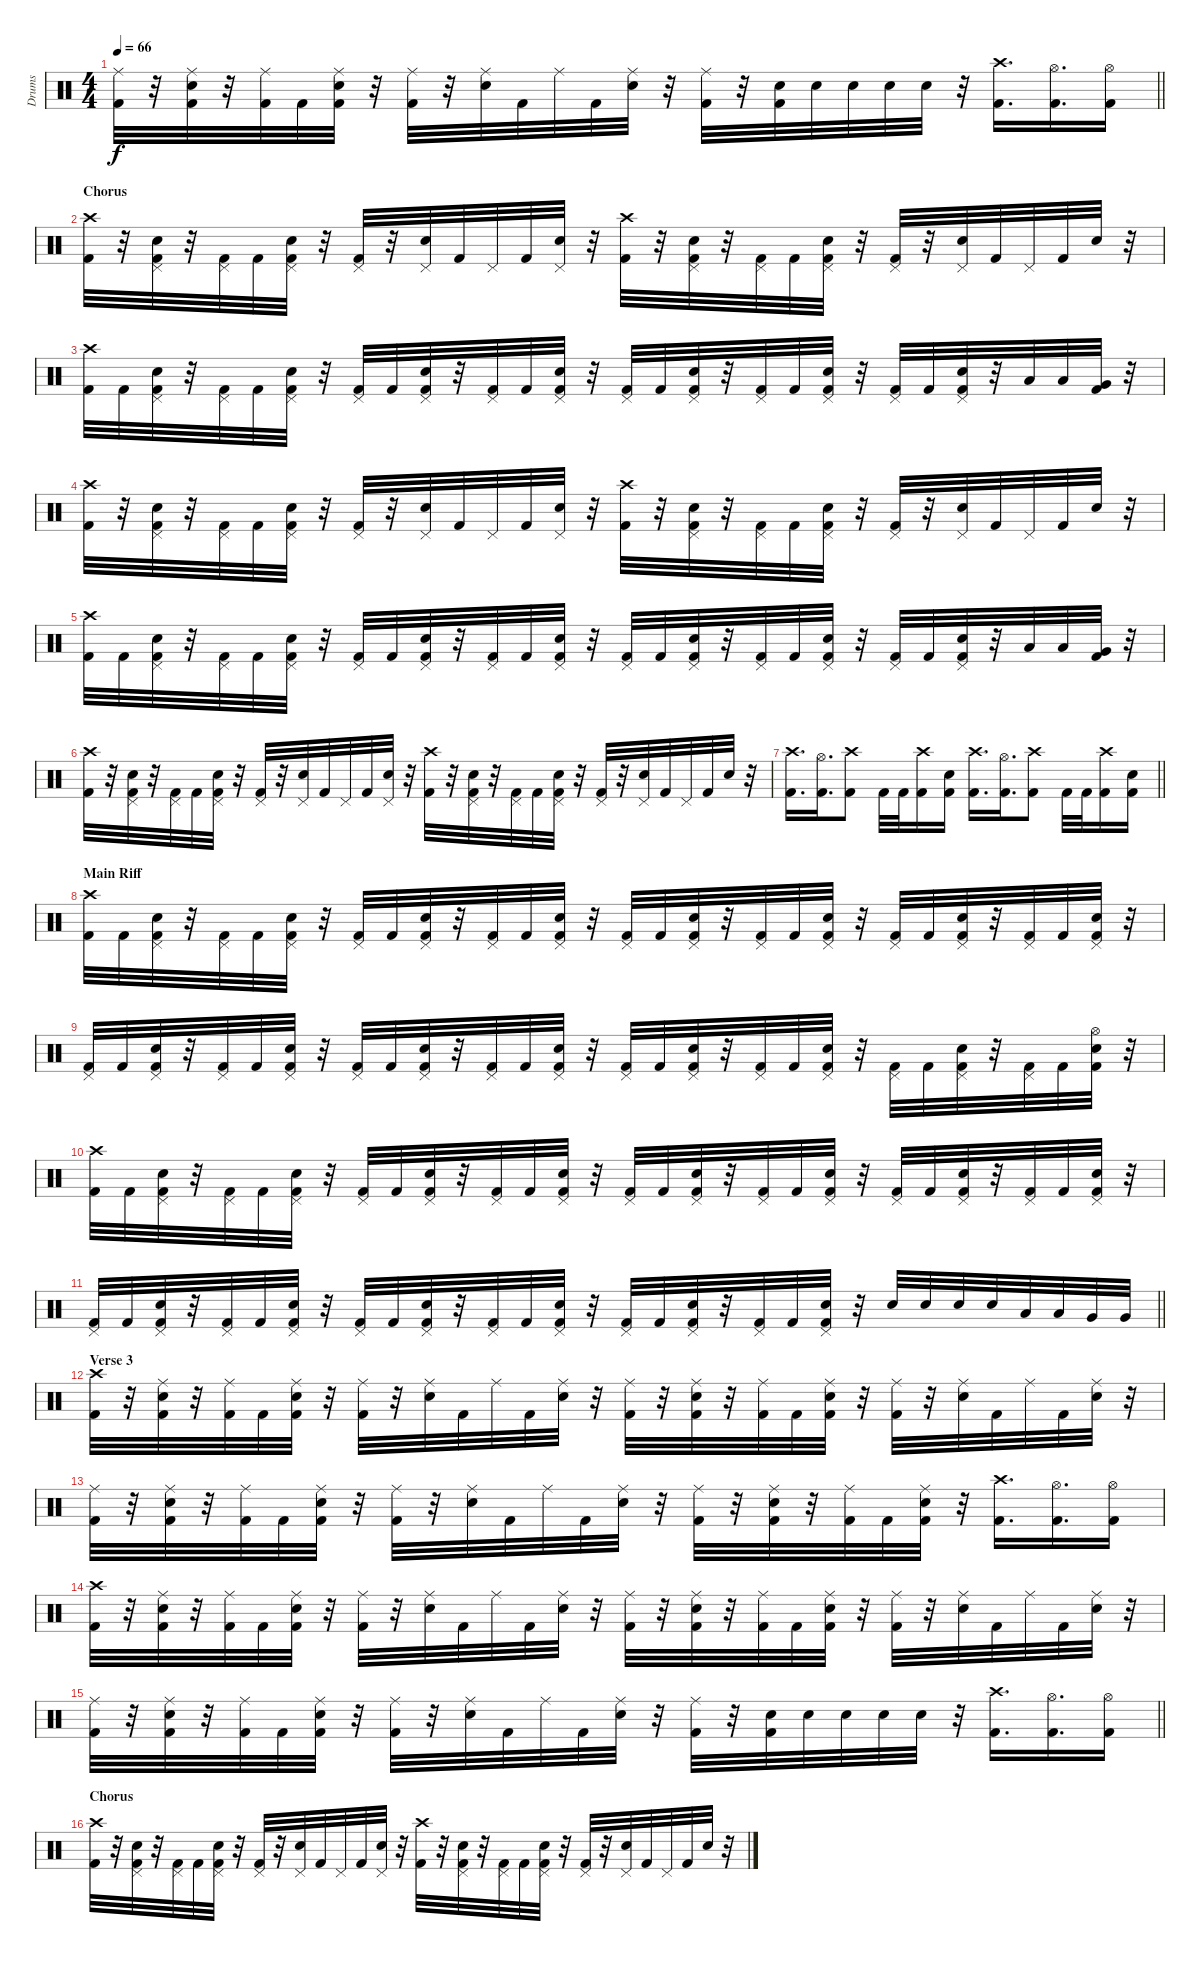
\track ("Drums" "Drums") {instrument percussion}
\staff {score}
\articulation defaults
\ts (4 4)
\tempo 66
\clef neutral
\barLineRight lightlight
\ks c
("Ride (middle)" "Kick (hit) 2").32{dy f} r.32 ("Ride (middle)" "Snare (hit) 2" "Kick (hit) 2").32 r.32 ("Ride (middle)" "Kick (hit) 2").32 "Kick (hit) 2".32 ("Ride (middle)" "Snare (hit) 2" "Kick (hit) 2").32 r.32 ("Ride (middle)" "Kick (hit) 2").32 r.32 ("Ride (middle)" "Snare (hit) 2").32 "Kick (hit) 2".32 "Ride (middle)".32 "Kick (hit) 2".32 ("Ride (middle)" "Snare (hit) 2").32 r.32 ("Ride (middle)" "Kick (hit) 2").32 r.32 ("Snare (hit) 2" "Kick (hit) 2").32 "Snare (hit) 2".32 "Snare (hit) 2".32 "Snare (hit) 2".32 "Snare (hit) 2".32 r.32 ("Crash high (hit)" "Kick (hit) 2").16{d} ("Hi-Hat (open)" "Kick (hit) 2").16{d} ("Hi-Hat (open)" "Kick (hit) 2").16 |
\section ("" "Chorus")
("Crash high (hit)" "Kick (hit) 2").32 r.32 ("Pedal Hi-Hat (hit)" "Snare (hit) 2" "Kick (hit) 2").32 r.32 ("Pedal Hi-Hat (hit)" "Kick (hit) 2").32 "Kick (hit) 2".32 ("Pedal Hi-Hat (hit)" "Snare (hit) 2" "Kick (hit) 2").32 r.32 ("Pedal Hi-Hat (hit)" "Kick (hit) 2").32 r.32 ("Pedal Hi-Hat (hit)" "Snare (hit) 2").32 "Kick (hit) 2".32 "Pedal Hi-Hat (hit)".32 "Kick (hit) 2".32 ("Pedal Hi-Hat (hit)" "Snare (hit) 2").32 r.32 ("Crash high (hit)" "Kick (hit) 2").32 r.32 ("Pedal Hi-Hat (hit)" "Snare (hit) 2" "Kick (hit) 2").32 r.32 ("Pedal Hi-Hat (hit)" "Kick (hit) 2").32 "Kick (hit) 2".32 ("Pedal Hi-Hat (hit)" "Snare (hit) 2" "Kick (hit) 2").32 r.32 ("Pedal Hi-Hat (hit)" "Kick (hit) 2").32 r.32 ("Pedal Hi-Hat (hit)" "Snare (hit) 2").32 "Kick (hit) 2".32 "Pedal Hi-Hat (hit)".32 "Kick (hit) 2".32 "Snare (hit) 2".32 r.32 |
("Crash high (hit)" "Kick (hit) 2").32 "Kick (hit) 2".32 ("Pedal Hi-Hat (hit)" "Snare (hit) 2" "Kick (hit) 2").32 r.32 ("Pedal Hi-Hat (hit)" "Kick (hit) 2").32 "Kick (hit) 2".32 ("Pedal Hi-Hat (hit)" "Snare (hit) 2" "Kick (hit) 2").32 r.32 ("Pedal Hi-Hat (hit)" "Kick (hit) 2").32 "Kick (hit) 2".32 ("Pedal Hi-Hat (hit)" "Snare (hit) 2" "Kick (hit) 2").32 r.32 ("Pedal Hi-Hat (hit)" "Kick (hit) 2").32 "Kick (hit) 2".32 ("Pedal Hi-Hat (hit)" "Snare (hit) 2" "Kick (hit) 2").32 r.32 ("Pedal Hi-Hat (hit)" "Kick (hit) 2").32 "Kick (hit) 2".32 ("Pedal Hi-Hat (hit)" "Snare (hit) 2" "Kick (hit) 2").32 r.32 ("Pedal Hi-Hat (hit)" "Kick (hit) 2").32 "Kick (hit) 2".32 ("Pedal Hi-Hat (hit)" "Snare (hit) 2" "Kick (hit) 2").32 r.32 ("Pedal Hi-Hat (hit)" "Kick (hit) 2").32 "Kick (hit) 2".32 ("Pedal Hi-Hat (hit)" "Snare (hit) 2" "Kick (hit) 2").32 r.32 "Low Tom (hit)".32 "Low Tom (hit)".32 ("Very Low Tom (hit)" "Kick (hit) 2").32 r.32 |
("Crash high (hit)" "Kick (hit) 2").32 r.32 ("Pedal Hi-Hat (hit)" "Snare (hit) 2" "Kick (hit) 2").32 r.32 ("Pedal Hi-Hat (hit)" "Kick (hit) 2").32 "Kick (hit) 2".32 ("Pedal Hi-Hat (hit)" "Snare (hit) 2" "Kick (hit) 2").32 r.32 ("Pedal Hi-Hat (hit)" "Kick (hit) 2").32 r.32 ("Pedal Hi-Hat (hit)" "Snare (hit) 2").32 "Kick (hit) 2".32 "Pedal Hi-Hat (hit)".32 "Kick (hit) 2".32 ("Pedal Hi-Hat (hit)" "Snare (hit) 2").32 r.32 ("Crash high (hit)" "Kick (hit) 2").32 r.32 ("Pedal Hi-Hat (hit)" "Snare (hit) 2" "Kick (hit) 2").32 r.32 ("Pedal Hi-Hat (hit)" "Kick (hit) 2").32 "Kick (hit) 2".32 ("Pedal Hi-Hat (hit)" "Snare (hit) 2" "Kick (hit) 2").32 r.32 ("Pedal Hi-Hat (hit)" "Kick (hit) 2").32 r.32 ("Pedal Hi-Hat (hit)" "Snare (hit) 2").32 "Kick (hit) 2".32 "Pedal Hi-Hat (hit)".32 "Kick (hit) 2".32 "Snare (hit) 2".32 r.32 |
("Crash high (hit)" "Kick (hit) 2").32 "Kick (hit) 2".32 ("Pedal Hi-Hat (hit)" "Snare (hit) 2" "Kick (hit) 2").32 r.32 ("Pedal Hi-Hat (hit)" "Kick (hit) 2").32 "Kick (hit) 2".32 ("Pedal Hi-Hat (hit)" "Snare (hit) 2" "Kick (hit) 2").32 r.32 ("Pedal Hi-Hat (hit)" "Kick (hit) 2").32 "Kick (hit) 2".32 ("Pedal Hi-Hat (hit)" "Snare (hit) 2" "Kick (hit) 2").32 r.32 ("Pedal Hi-Hat (hit)" "Kick (hit) 2").32 "Kick (hit) 2".32 ("Pedal Hi-Hat (hit)" "Snare (hit) 2" "Kick (hit) 2").32 r.32 ("Pedal Hi-Hat (hit)" "Kick (hit) 2").32 "Kick (hit) 2".32 ("Pedal Hi-Hat (hit)" "Snare (hit) 2" "Kick (hit) 2").32 r.32 ("Pedal Hi-Hat (hit)" "Kick (hit) 2").32 "Kick (hit) 2".32 ("Pedal Hi-Hat (hit)" "Snare (hit) 2" "Kick (hit) 2").32 r.32 ("Pedal Hi-Hat (hit)" "Kick (hit) 2").32 "Kick (hit) 2".32 ("Pedal Hi-Hat (hit)" "Snare (hit) 2" "Kick (hit) 2").32 r.32 "Low Tom (hit)".32 "Low Tom (hit)".32 ("Very Low Tom (hit)" "Kick (hit) 2").32 r.32 |
("Crash high (hit)" "Kick (hit) 2").32 r.32 ("Pedal Hi-Hat (hit)" "Snare (hit) 2" "Kick (hit) 2").32 r.32 ("Pedal Hi-Hat (hit)" "Kick (hit) 2").32 "Kick (hit) 2".32 ("Pedal Hi-Hat (hit)" "Snare (hit) 2" "Kick (hit) 2").32 r.32 ("Pedal Hi-Hat (hit)" "Kick (hit) 2").32 r.32 ("Pedal Hi-Hat (hit)" "Snare (hit) 2").32 "Kick (hit) 2".32 "Pedal Hi-Hat (hit)".32 "Kick (hit) 2".32 ("Pedal Hi-Hat (hit)" "Snare (hit) 2").32 r.32 ("Crash high (hit)" "Kick (hit) 2").32 r.32 ("Pedal Hi-Hat (hit)" "Snare (hit) 2" "Kick (hit) 2").32 r.32 ("Pedal Hi-Hat (hit)" "Kick (hit) 2").32 "Kick (hit) 2".32 ("Pedal Hi-Hat (hit)" "Snare (hit) 2" "Kick (hit) 2").32 r.32 ("Pedal Hi-Hat (hit)" "Kick (hit) 2").32 r.32 ("Pedal Hi-Hat (hit)" "Snare (hit) 2").32 "Kick (hit) 2".32 "Pedal Hi-Hat (hit)".32 "Kick (hit) 2".32 "Snare (hit) 2".32 r.32 |
\barLineRight lightlight
("Crash high (hit)" "Kick (hit) 2").16{d} ("Hi-Hat (open)" "Kick (hit) 2").16{d} ("Crash high (hit)" "Kick (hit) 2").8 "Kick (hit) 2".32 "Kick (hit) 2".32 ("Crash high (hit)" "Kick (hit) 2").16 ("Snare (hit) 2" "Kick (hit) 2").16 ("Crash high (hit)" "Kick (hit) 2").16{d} ("Hi-Hat (open)" "Kick (hit) 2").16{d} ("Crash high (hit)" "Kick (hit) 2").8 "Kick (hit) 2".32 "Kick (hit) 2".32 ("Crash high (hit)" "Kick (hit) 2").16 ("Snare (hit) 2" "Kick (hit) 2").16 |
\section ("" "Main Riff")
("Crash high (hit)" "Kick (hit) 2").32 "Kick (hit) 2".32 ("Pedal Hi-Hat (hit)" "Snare (hit) 2" "Kick (hit) 2").32 r.32 ("Pedal Hi-Hat (hit)" "Kick (hit) 2").32 "Kick (hit) 2".32 ("Pedal Hi-Hat (hit)" "Snare (hit) 2" "Kick (hit) 2").32 r.32 ("Pedal Hi-Hat (hit)" "Kick (hit) 2").32 "Kick (hit) 2".32 ("Pedal Hi-Hat (hit)" "Snare (hit) 2" "Kick (hit) 2").32 r.32 ("Pedal Hi-Hat (hit)" "Kick (hit) 2").32 "Kick (hit) 2".32 ("Pedal Hi-Hat (hit)" "Snare (hit) 2" "Kick (hit) 2").32 r.32 ("Pedal Hi-Hat (hit)" "Kick (hit) 2").32 "Kick (hit) 2".32 ("Pedal Hi-Hat (hit)" "Snare (hit) 2" "Kick (hit) 2").32 r.32 ("Pedal Hi-Hat (hit)" "Kick (hit) 2").32 "Kick (hit) 2".32 ("Pedal Hi-Hat (hit)" "Snare (hit) 2" "Kick (hit) 2").32 r.32 ("Pedal Hi-Hat (hit)" "Kick (hit) 2").32 "Kick (hit) 2".32 ("Pedal Hi-Hat (hit)" "Snare (hit) 2" "Kick (hit) 2").32 r.32 ("Pedal Hi-Hat (hit)" "Kick (hit) 2").32 "Kick (hit) 2".32 ("Pedal Hi-Hat (hit)" "Snare (hit) 2" "Kick (hit) 2").32 r.32 |
("Pedal Hi-Hat (hit)" "Kick (hit) 2").32 "Kick (hit) 2".32 ("Pedal Hi-Hat (hit)" "Snare (hit) 2" "Kick (hit) 2").32 r.32 ("Pedal Hi-Hat (hit)" "Kick (hit) 2").32 "Kick (hit) 2".32 ("Pedal Hi-Hat (hit)" "Snare (hit) 2" "Kick (hit) 2").32 r.32 ("Pedal Hi-Hat (hit)" "Kick (hit) 2").32 "Kick (hit) 2".32 ("Pedal Hi-Hat (hit)" "Snare (hit) 2" "Kick (hit) 2").32 r.32 ("Pedal Hi-Hat (hit)" "Kick (hit) 2").32 "Kick (hit) 2".32 ("Pedal Hi-Hat (hit)" "Snare (hit) 2" "Kick (hit) 2").32 r.32 ("Pedal Hi-Hat (hit)" "Kick (hit) 2").32 "Kick (hit) 2".32 ("Pedal Hi-Hat (hit)" "Snare (hit) 2" "Kick (hit) 2").32 r.32 ("Pedal Hi-Hat (hit)" "Kick (hit) 2").32 "Kick (hit) 2".32 ("Pedal Hi-Hat (hit)" "Snare (hit) 2" "Kick (hit) 2").32 r.32 ("Pedal Hi-Hat (hit)" "Kick (hit) 2").32 "Kick (hit) 2".32 ("Pedal Hi-Hat (hit)" "Snare (hit) 2" "Kick (hit) 2").32 r.32 ("Pedal Hi-Hat (hit)" "Kick (hit) 2").32 "Kick (hit) 2".32 ("Hi-Hat (open)" "Snare (hit) 2" "Kick (hit) 2").32 r.32 |
("Crash high (hit)" "Kick (hit) 2").32 "Kick (hit) 2".32 ("Pedal Hi-Hat (hit)" "Snare (hit) 2" "Kick (hit) 2").32 r.32 ("Pedal Hi-Hat (hit)" "Kick (hit) 2").32 "Kick (hit) 2".32 ("Pedal Hi-Hat (hit)" "Snare (hit) 2" "Kick (hit) 2").32 r.32 ("Pedal Hi-Hat (hit)" "Kick (hit) 2").32 "Kick (hit) 2".32 ("Pedal Hi-Hat (hit)" "Snare (hit) 2" "Kick (hit) 2").32 r.32 ("Pedal Hi-Hat (hit)" "Kick (hit) 2").32 "Kick (hit) 2".32 ("Pedal Hi-Hat (hit)" "Snare (hit) 2" "Kick (hit) 2").32 r.32 ("Pedal Hi-Hat (hit)" "Kick (hit) 2").32 "Kick (hit) 2".32 ("Pedal Hi-Hat (hit)" "Snare (hit) 2" "Kick (hit) 2").32 r.32 ("Pedal Hi-Hat (hit)" "Kick (hit) 2").32 "Kick (hit) 2".32 ("Pedal Hi-Hat (hit)" "Snare (hit) 2" "Kick (hit) 2").32 r.32 ("Pedal Hi-Hat (hit)" "Kick (hit) 2").32 "Kick (hit) 2".32 ("Pedal Hi-Hat (hit)" "Snare (hit) 2" "Kick (hit) 2").32 r.32 ("Pedal Hi-Hat (hit)" "Kick (hit) 2").32 "Kick (hit) 2".32 ("Pedal Hi-Hat (hit)" "Snare (hit) 2" "Kick (hit) 2").32 r.32 |
\barLineRight lightlight
("Pedal Hi-Hat (hit)" "Kick (hit) 2").32 "Kick (hit) 2".32 ("Pedal Hi-Hat (hit)" "Snare (hit) 2" "Kick (hit) 2").32 r.32 ("Pedal Hi-Hat (hit)" "Kick (hit) 2").32 "Kick (hit) 2".32 ("Pedal Hi-Hat (hit)" "Snare (hit) 2" "Kick (hit) 2").32 r.32 ("Pedal Hi-Hat (hit)" "Kick (hit) 2").32 "Kick (hit) 2".32 ("Pedal Hi-Hat (hit)" "Snare (hit) 2" "Kick (hit) 2").32 r.32 ("Pedal Hi-Hat (hit)" "Kick (hit) 2").32 "Kick (hit) 2".32 ("Pedal Hi-Hat (hit)" "Snare (hit) 2" "Kick (hit) 2").32 r.32 ("Pedal Hi-Hat (hit)" "Kick (hit) 2").32 "Kick (hit) 2".32 ("Pedal Hi-Hat (hit)" "Snare (hit) 2" "Kick (hit) 2").32 r.32 ("Pedal Hi-Hat (hit)" "Kick (hit) 2").32 "Kick (hit) 2".32 ("Pedal Hi-Hat (hit)" "Snare (hit) 2" "Kick (hit) 2").32 r.32 "Snare (hit) 2".32 "Snare (hit) 2".32 "Snare (hit) 2".32 "Snare (hit) 2".32 "Low Tom (hit)".32 "Low Tom (hit)".32 "Very Low Tom (hit)".32 "Very Low Tom (hit)".32 |
\section ("" "Verse 3")
("Crash high (hit)" "Kick (hit) 2").32 r.32 ("Ride (middle)" "Snare (hit) 2" "Kick (hit) 2").32 r.32 ("Ride (middle)" "Kick (hit) 2").32 "Kick (hit) 2".32 ("Ride (middle)" "Snare (hit) 2" "Kick (hit) 2").32 r.32 ("Ride (middle)" "Kick (hit) 2").32 r.32 ("Ride (middle)" "Snare (hit) 2").32 "Kick (hit) 2".32 "Ride (middle)".32 "Kick (hit) 2".32 ("Ride (middle)" "Snare (hit) 2").32 r.32 ("Ride (middle)" "Kick (hit) 2").32 r.32 ("Ride (middle)" "Snare (hit) 2" "Kick (hit) 2").32 r.32 ("Ride (middle)" "Kick (hit) 2").32 "Kick (hit) 2".32 ("Ride (middle)" "Snare (hit) 2" "Kick (hit) 2").32 r.32 ("Ride (middle)" "Kick (hit) 2").32 r.32 ("Ride (middle)" "Snare (hit) 2").32 "Kick (hit) 2".32 "Ride (middle)".32 "Kick (hit) 2".32 ("Ride (middle)" "Snare (hit) 2").32 r.32 |
("Ride (middle)" "Kick (hit) 2").32 r.32 ("Ride (middle)" "Snare (hit) 2" "Kick (hit) 2").32 r.32 ("Ride (middle)" "Kick (hit) 2").32 "Kick (hit) 2".32 ("Ride (middle)" "Snare (hit) 2" "Kick (hit) 2").32 r.32 ("Ride (middle)" "Kick (hit) 2").32 r.32 ("Ride (middle)" "Snare (hit) 2").32 "Kick (hit) 2".32 "Ride (middle)".32 "Kick (hit) 2".32 ("Ride (middle)" "Snare (hit) 2").32 r.32 ("Ride (middle)" "Kick (hit) 2").32 r.32 ("Ride (middle)" "Snare (hit) 2" "Kick (hit) 2").32 r.32 ("Ride (middle)" "Kick (hit) 2").32 "Kick (hit) 2".32 ("Ride (middle)" "Snare (hit) 2" "Kick (hit) 2").32 r.32 ("Crash high (hit)" "Kick (hit) 2").16{d} ("Hi-Hat (open)" "Kick (hit) 2").16{d} ("Hi-Hat (open)" "Kick (hit) 2").16 |
("Crash high (hit)" "Kick (hit) 2").32 r.32 ("Ride (middle)" "Snare (hit) 2" "Kick (hit) 2").32 r.32 ("Ride (middle)" "Kick (hit) 2").32 "Kick (hit) 2".32 ("Ride (middle)" "Snare (hit) 2" "Kick (hit) 2").32 r.32 ("Ride (middle)" "Kick (hit) 2").32 r.32 ("Ride (middle)" "Snare (hit) 2").32 "Kick (hit) 2".32 "Ride (middle)".32 "Kick (hit) 2".32 ("Ride (middle)" "Snare (hit) 2").32 r.32 ("Ride (middle)" "Kick (hit) 2").32 r.32 ("Ride (middle)" "Snare (hit) 2" "Kick (hit) 2").32 r.32 ("Ride (middle)" "Kick (hit) 2").32 "Kick (hit) 2".32 ("Ride (middle)" "Snare (hit) 2" "Kick (hit) 2").32 r.32 ("Ride (middle)" "Kick (hit) 2").32 r.32 ("Ride (middle)" "Snare (hit) 2").32 "Kick (hit) 2".32 "Ride (middle)".32 "Kick (hit) 2".32 ("Ride (middle)" "Snare (hit) 2").32 r.32 |
\barLineRight lightlight
("Ride (middle)" "Kick (hit) 2").32 r.32 ("Ride (middle)" "Snare (hit) 2" "Kick (hit) 2").32 r.32 ("Ride (middle)" "Kick (hit) 2").32 "Kick (hit) 2".32 ("Ride (middle)" "Snare (hit) 2" "Kick (hit) 2").32 r.32 ("Ride (middle)" "Kick (hit) 2").32 r.32 ("Ride (middle)" "Snare (hit) 2").32 "Kick (hit) 2".32 "Ride (middle)".32 "Kick (hit) 2".32 ("Ride (middle)" "Snare (hit) 2").32 r.32 ("Ride (middle)" "Kick (hit) 2").32 r.32 ("Snare (hit) 2" "Kick (hit) 2").32 "Snare (hit) 2".32 "Snare (hit) 2".32 "Snare (hit) 2".32 "Snare (hit) 2".32 r.32 ("Crash high (hit)" "Kick (hit) 2").16{d} ("Hi-Hat (open)" "Kick (hit) 2").16{d} ("Hi-Hat (open)" "Kick (hit) 2").16 |
\section ("" "Chorus")
("Crash high (hit)" "Kick (hit) 2").32 r.32 ("Pedal Hi-Hat (hit)" "Snare (hit) 2" "Kick (hit) 2").32 r.32 ("Pedal Hi-Hat (hit)" "Kick (hit) 2").32 "Kick (hit) 2".32 ("Pedal Hi-Hat (hit)" "Snare (hit) 2" "Kick (hit) 2").32 r.32 ("Pedal Hi-Hat (hit)" "Kick (hit) 2").32 r.32 ("Pedal Hi-Hat (hit)" "Snare (hit) 2").32 "Kick (hit) 2".32 "Pedal Hi-Hat (hit)".32 "Kick (hit) 2".32 ("Pedal Hi-Hat (hit)" "Snare (hit) 2").32 r.32 ("Crash high (hit)" "Kick (hit) 2").32 r.32 ("Pedal Hi-Hat (hit)" "Snare (hit) 2" "Kick (hit) 2").32 r.32 ("Pedal Hi-Hat (hit)" "Kick (hit) 2").32 "Kick (hit) 2".32 ("Pedal Hi-Hat (hit)" "Snare (hit) 2" "Kick (hit) 2").32 r.32 ("Pedal Hi-Hat (hit)" "Kick (hit) 2").32 r.32 ("Pedal Hi-Hat (hit)" "Snare (hit) 2").32 "Kick (hit) 2".32 "Pedal Hi-Hat (hit)".32 "Kick (hit) 2".32 "Snare (hit) 2".32 r.32
